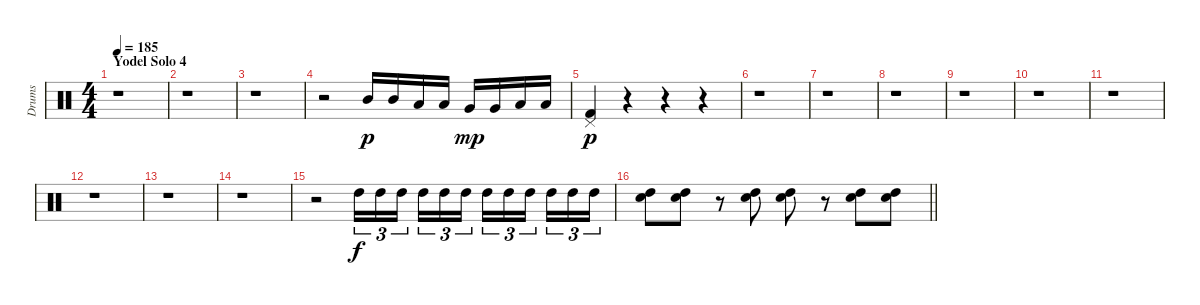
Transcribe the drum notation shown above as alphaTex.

\track ("Drums" "Drums") {instrument percussion}
\staff {score}
\articulation defaults
\ts (4 4)
\section ("" "Yodel Solo 4")
\tempo 185
\clef neutral
\ks c
r.1{dy f} |
r.1 |
r.1 |
r.2 "Mid Tom (hit)".16{dy p} "Mid Tom (hit)".16 "Low Tom (hit)".16 "Low Tom (hit)".16 "Very Low Tom (hit)".16{dy mp} "Very Low Tom (hit)".16 "Low Floor Tom (hit)".16 "Low Floor Tom (hit)".16 |
("Pedal Hi-Hat (hit)" "Kick (hit) 2").4{dy p} r.4 r.4 r.4 |
r.1 |
r.1 |
r.1 |
r.1 |
r.1 |
r.1 |
r.1 |
r.1 |
r.1 |
r.2 "High Tom (hit)".16{tu (3 2) dy f} "High Tom (hit)".16{tu (3 2)} "High Tom (hit)".16{tu (3 2) beam splitsecondary} "High Tom (hit)".16{tu (3 2)} "High Tom (hit)".16{tu (3 2)} "High Tom (hit)".16{tu (3 2)} "High Tom (hit)".16{tu (3 2)} "High Tom (hit)".16{tu (3 2)} "High Tom (hit)".16{tu (3 2) beam splitsecondary} "High Tom (hit)".16{tu (3 2)} "High Tom (hit)".16{tu (3 2)} "High Tom (hit)".16{tu (3 2)} |
\barLineRight lightlight
("Electric Snare (hit)" "High Tom (hit)").8 ("Electric Snare (hit)" "High Tom (hit)").8 r.8 ("Electric Snare (hit)" "High Tom (hit)").8 ("Electric Snare (hit)" "High Tom (hit)").8 r.8 ("Electric Snare (hit)" "High Tom (hit)").8 ("Electric Snare (hit)" "High Tom (hit)").8
